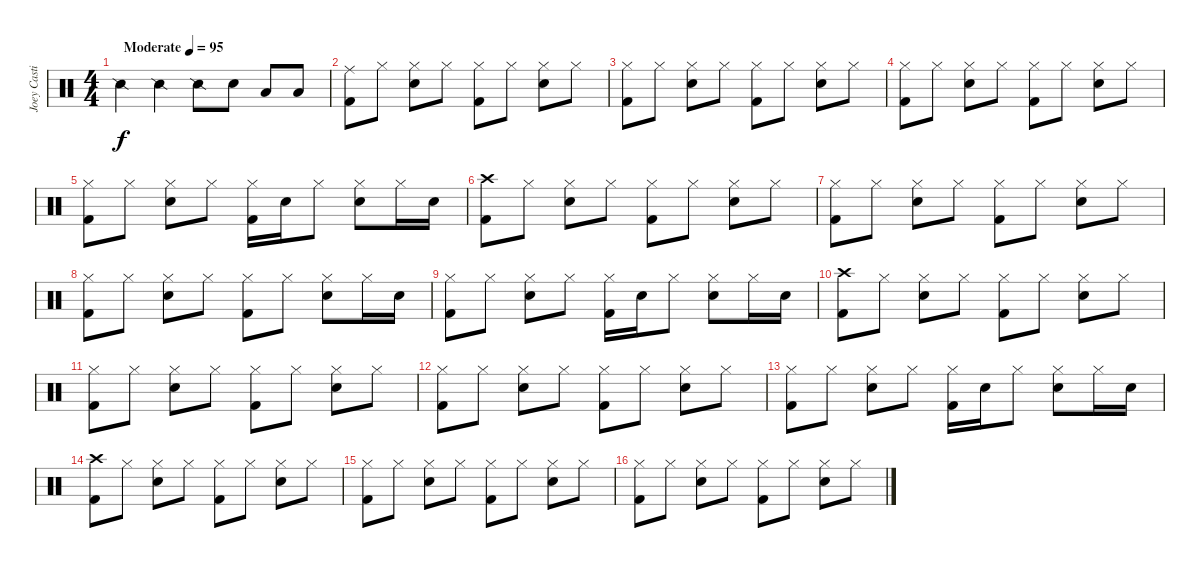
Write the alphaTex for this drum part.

\track ("Joey Castillo" "Joey Casti") {instrument percussion}
\staff {score}
\articulation defaults
\ts (4 4)
\tempo (95 "Moderate")
\clef neutral
\ks c "Snare (side stick) 2".4{dy f} "Snare (side stick) 2".4 "Snare (side stick) 2".8 "Snare (hit) 2".8 "Low Tom (hit)".8 "Low Floor Tom (hit)".8
|
("Ride (middle)" "Kick (hit) 2").8 "Hi-Hat (closed)".8 ("Hi-Hat (closed)" "Snare (hit) 2").8 "Hi-Hat (closed)".8 ("Hi-Hat (closed)" "Kick (hit) 2").8 "Hi-Hat (closed)".8 ("Hi-Hat (closed)" "Snare (hit) 2").8 "Hi-Hat (closed)".8 |
("Hi-Hat (closed)" "Kick (hit) 2").8 "Hi-Hat (closed)".8 ("Hi-Hat (closed)" "Snare (hit) 2").8 "Hi-Hat (closed)".8 ("Hi-Hat (closed)" "Kick (hit) 2").8 "Hi-Hat (closed)".8 ("Hi-Hat (closed)" "Snare (hit) 2").8 "Hi-Hat (closed)".8 |
("Hi-Hat (closed)" "Kick (hit) 2").8 "Hi-Hat (closed)".8 ("Hi-Hat (closed)" "Snare (hit) 2").8 "Hi-Hat (closed)".8 ("Hi-Hat (closed)" "Kick (hit) 2").8 "Hi-Hat (closed)".8 ("Hi-Hat (closed)" "Snare (hit) 2").8 "Hi-Hat (closed)".8 |
("Hi-Hat (closed)" "Kick (hit) 2").8 "Hi-Hat (closed)".8 ("Hi-Hat (closed)" "Snare (hit) 2").8 "Hi-Hat (closed)".8 ("Hi-Hat (closed)" "Kick (hit) 2").16 "Snare (hit) 2".16 "Hi-Hat (closed)".8 ("Hi-Hat (closed)" "Snare (hit) 2").8 "Hi-Hat (closed)".16 "Snare (hit) 2".16 |
("Crash high (hit)" "Kick (hit) 2").8 "Hi-Hat (closed)".8 ("Hi-Hat (closed)" "Snare (hit) 2").8 "Hi-Hat (closed)".8 ("Hi-Hat (closed)" "Kick (hit) 2").8 "Hi-Hat (closed)".8 ("Hi-Hat (closed)" "Snare (hit) 2").8 "Hi-Hat (closed)".8 |
("Hi-Hat (closed)" "Kick (hit) 2").8 "Hi-Hat (closed)".8 ("Hi-Hat (closed)" "Snare (hit) 2").8 "Hi-Hat (closed)".8 ("Hi-Hat (closed)" "Kick (hit) 2").8 "Hi-Hat (closed)".8 ("Hi-Hat (closed)" "Snare (hit) 2").8 "Hi-Hat (closed)".8 |
("Hi-Hat (closed)" "Kick (hit) 2").8 "Hi-Hat (closed)".8 ("Hi-Hat (closed)" "Snare (hit) 2").8 "Hi-Hat (closed)".8 ("Hi-Hat (closed)" "Kick (hit) 2").8 "Hi-Hat (closed)".8 ("Hi-Hat (closed)" "Snare (hit) 2").8 "Hi-Hat (closed)".16 "Snare (hit) 2".16 |
("Hi-Hat (closed)" "Kick (hit) 2").8 "Hi-Hat (closed)".8 ("Hi-Hat (closed)" "Snare (hit) 2").8 "Hi-Hat (closed)".8 ("Hi-Hat (closed)" "Kick (hit) 2").16 "Snare (hit) 2".16 "Hi-Hat (closed)".8 ("Hi-Hat (closed)" "Snare (hit) 2").8 "Hi-Hat (closed)".16 "Snare (hit) 2".16 |
("Crash high (hit)" "Kick (hit) 2").8 "Hi-Hat (closed)".8 ("Hi-Hat (closed)" "Snare (hit) 2").8 "Hi-Hat (closed)".8 ("Hi-Hat (closed)" "Kick (hit) 2").8 "Hi-Hat (closed)".8 ("Hi-Hat (closed)" "Snare (hit) 2").8 "Hi-Hat (closed)".8 |
("Hi-Hat (closed)" "Kick (hit) 2").8 "Hi-Hat (closed)".8 ("Hi-Hat (closed)" "Snare (hit) 2").8 "Hi-Hat (closed)".8 ("Hi-Hat (closed)" "Kick (hit) 2").8 "Hi-Hat (closed)".8 ("Hi-Hat (closed)" "Snare (hit) 2").8 "Hi-Hat (closed)".8 |
("Hi-Hat (closed)" "Kick (hit) 2").8 "Hi-Hat (closed)".8 ("Hi-Hat (closed)" "Snare (hit) 2").8 "Hi-Hat (closed)".8 ("Hi-Hat (closed)" "Kick (hit) 2").8 "Hi-Hat (closed)".8 ("Hi-Hat (closed)" "Snare (hit) 2").8 "Hi-Hat (closed)".8 |
("Hi-Hat (closed)" "Kick (hit) 2").8 "Hi-Hat (closed)".8 ("Hi-Hat (closed)" "Snare (hit) 2").8 "Hi-Hat (closed)".8 ("Hi-Hat (closed)" "Kick (hit) 2").16 "Snare (hit) 2".16 "Hi-Hat (closed)".8 ("Hi-Hat (closed)" "Snare (hit) 2").8 "Hi-Hat (closed)".16 "Snare (hit) 2".16 |
("Crash high (hit)" "Kick (hit) 2").8 "Hi-Hat (closed)".8 ("Hi-Hat (closed)" "Snare (hit) 2").8 "Hi-Hat (closed)".8 ("Hi-Hat (closed)" "Kick (hit) 2").8 "Hi-Hat (closed)".8 ("Hi-Hat (closed)" "Snare (hit) 2").8 "Hi-Hat (closed)".8 |
("Hi-Hat (closed)" "Kick (hit) 2").8 "Hi-Hat (closed)".8 ("Hi-Hat (closed)" "Snare (hit) 2").8 "Hi-Hat (closed)".8 ("Hi-Hat (closed)" "Kick (hit) 2").8 "Hi-Hat (closed)".8 ("Hi-Hat (closed)" "Snare (hit) 2").8 "Hi-Hat (closed)".8 |
("Hi-Hat (closed)" "Kick (hit) 2").8 "Hi-Hat (closed)".8 ("Hi-Hat (closed)" "Snare (hit) 2").8 "Hi-Hat (closed)".8 ("Hi-Hat (closed)" "Kick (hit) 2").8 "Hi-Hat (closed)".8 ("Hi-Hat (closed)" "Snare (hit) 2").8 "Hi-Hat (closed)".8
